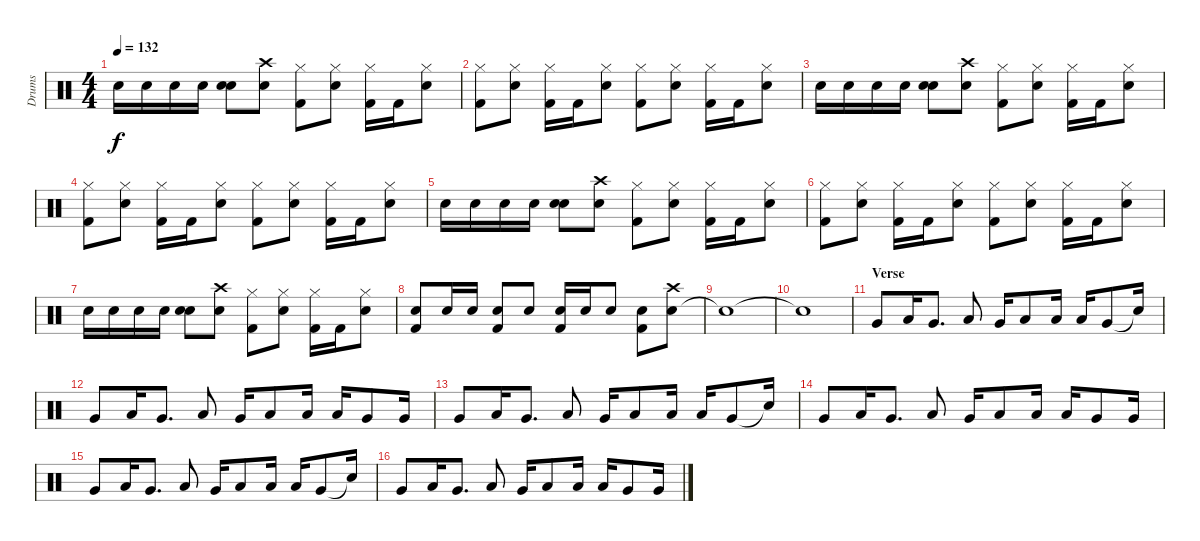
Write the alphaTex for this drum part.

\track ("Drums" "Drums") {instrument percussion}
\staff {score}
\articulation defaults
\ts (4 4)
\tempo 132
\clef neutral
\ks c "Snare (hit) 2".16{dy f} "Snare (hit) 2".16 "Snare (hit) 2".16 "Snare (hit) 2".16
("Snare (hit) 2" "Snare (hit) 2").8 ("Snare (hit) 2" "Crash high (hit)").8 ("Kick (hit) 2" "Hi-Hat (closed)").8 ("Snare (hit) 2" "Hi-Hat (closed)").8 ("Kick (hit) 2" "Hi-Hat (closed)").16 "Kick (hit) 2".16 ("Snare (hit) 2" "Hi-Hat (closed)").8 |
("Kick (hit) 2" "Hi-Hat (closed)").8 ("Snare (hit) 2" "Hi-Hat (closed)").8 ("Kick (hit) 2" "Hi-Hat (closed)").16 "Kick (hit) 2".16 ("Snare (hit) 2" "Hi-Hat (closed)").8 ("Kick (hit) 2" "Hi-Hat (closed)").8 ("Snare (hit) 2" "Hi-Hat (closed)").8 ("Kick (hit) 2" "Hi-Hat (closed)").16 "Kick (hit) 2".16 ("Snare (hit) 2" "Hi-Hat (closed)").8 |
"Snare (hit) 2".16 "Snare (hit) 2".16 "Snare (hit) 2".16 "Snare (hit) 2".16 ("Snare (hit) 2" "Snare (hit) 2").8 ("Snare (hit) 2" "Crash high (hit)").8 ("Kick (hit) 2" "Hi-Hat (closed)").8 ("Snare (hit) 2" "Hi-Hat (closed)").8 ("Kick (hit) 2" "Hi-Hat (closed)").16 "Kick (hit) 2".16 ("Snare (hit) 2" "Hi-Hat (closed)").8 |
("Kick (hit) 2" "Hi-Hat (closed)").8 ("Snare (hit) 2" "Hi-Hat (closed)").8 ("Kick (hit) 2" "Hi-Hat (closed)").16 "Kick (hit) 2".16 ("Snare (hit) 2" "Hi-Hat (closed)").8 ("Kick (hit) 2" "Hi-Hat (closed)").8 ("Snare (hit) 2" "Hi-Hat (closed)").8 ("Kick (hit) 2" "Hi-Hat (closed)").16 "Kick (hit) 2".16 ("Snare (hit) 2" "Hi-Hat (closed)").8 |
"Snare (hit) 2".16 "Snare (hit) 2".16 "Snare (hit) 2".16 "Snare (hit) 2".16 ("Snare (hit) 2" "Snare (hit) 2").8 ("Snare (hit) 2" "Crash high (hit)").8 ("Kick (hit) 2" "Hi-Hat (closed)").8 ("Snare (hit) 2" "Hi-Hat (closed)").8 ("Kick (hit) 2" "Hi-Hat (closed)").16 "Kick (hit) 2".16 ("Snare (hit) 2" "Hi-Hat (closed)").8 |
("Kick (hit) 2" "Hi-Hat (closed)").8 ("Snare (hit) 2" "Hi-Hat (closed)").8 ("Kick (hit) 2" "Hi-Hat (closed)").16 "Kick (hit) 2".16 ("Snare (hit) 2" "Hi-Hat (closed)").8 ("Kick (hit) 2" "Hi-Hat (closed)").8 ("Snare (hit) 2" "Hi-Hat (closed)").8 ("Kick (hit) 2" "Hi-Hat (closed)").16 "Kick (hit) 2".16 ("Snare (hit) 2" "Hi-Hat (closed)").8 |
"Snare (hit) 2".16 "Snare (hit) 2".16 "Snare (hit) 2".16 "Snare (hit) 2".16 ("Snare (hit) 2" "Snare (hit) 2").8 ("Snare (hit) 2" "Crash high (hit)").8 ("Kick (hit) 2" "Hi-Hat (closed)").8 ("Snare (hit) 2" "Hi-Hat (closed)").8 ("Kick (hit) 2" "Hi-Hat (closed)").16 "Kick (hit) 2".16 ("Snare (hit) 2" "Hi-Hat (closed)").8 |
("Snare (hit) 2" "Kick (hit) 2").8 "Snare (hit) 2".16 "Snare (hit) 2".16 ("Snare (hit) 2" "Kick (hit) 2").8 "Snare (hit) 2".8 ("Snare (hit) 2" "Kick (hit) 2").16 "Snare (hit) 2".16 "Snare (hit) 2".8 ("Snare (hit) 2" "Kick (hit) 2").8 ("Snare (hit) 2" "Crash high (hit)").8 |
"Snare (hit)"{t}.1 |
"Snare (hit)"{t}.1 |
\section ("" "Verse")
"Very Low Tom (hit)".8 "Low Floor Tom (hit)".16 "Very Low Tom (hit)".8{d} "Low Floor Tom (hit)".8 "Very Low Tom (hit)".16 "Low Floor Tom (hit)".8 "Low Floor Tom (hit)".16 "Low Floor Tom (hit)".16 "Very Low Tom (hit)".8 "Snare (hit)"{t}.16 |
"Very Low Tom (hit)".8 "Low Floor Tom (hit)".16 "Very Low Tom (hit)".8{d} "Low Floor Tom (hit)".8 "Very Low Tom (hit)".16 "Low Floor Tom (hit)".8 "Low Floor Tom (hit)".16 "Low Floor Tom (hit)".16 "Very Low Tom (hit)".8 "Very Low Tom (hit)".16 |
"Very Low Tom (hit)".8 "Low Floor Tom (hit)".16 "Very Low Tom (hit)".8{d} "Low Floor Tom (hit)".8 "Very Low Tom (hit)".16 "Low Floor Tom (hit)".8 "Low Floor Tom (hit)".16 "Low Floor Tom (hit)".16 "Very Low Tom (hit)".8 "Snare (hit)"{t}.16 |
"Very Low Tom (hit)".8 "Low Floor Tom (hit)".16 "Very Low Tom (hit)".8{d} "Low Floor Tom (hit)".8 "Very Low Tom (hit)".16 "Low Floor Tom (hit)".8 "Low Floor Tom (hit)".16 "Low Floor Tom (hit)".16 "Very Low Tom (hit)".8 "Very Low Tom (hit)".16 |
"Very Low Tom (hit)".8 "Low Floor Tom (hit)".16 "Very Low Tom (hit)".8{d} "Low Floor Tom (hit)".8 "Very Low Tom (hit)".16 "Low Floor Tom (hit)".8 "Low Floor Tom (hit)".16 "Low Floor Tom (hit)".16 "Very Low Tom (hit)".8 "Snare (hit)"{t}.16 |
"Very Low Tom (hit)".8 "Low Floor Tom (hit)".16 "Very Low Tom (hit)".8{d} "Low Floor Tom (hit)".8 "Very Low Tom (hit)".16 "Low Floor Tom (hit)".8 "Low Floor Tom (hit)".16 "Low Floor Tom (hit)".16 "Very Low Tom (hit)".8 "Very Low Tom (hit)".16
